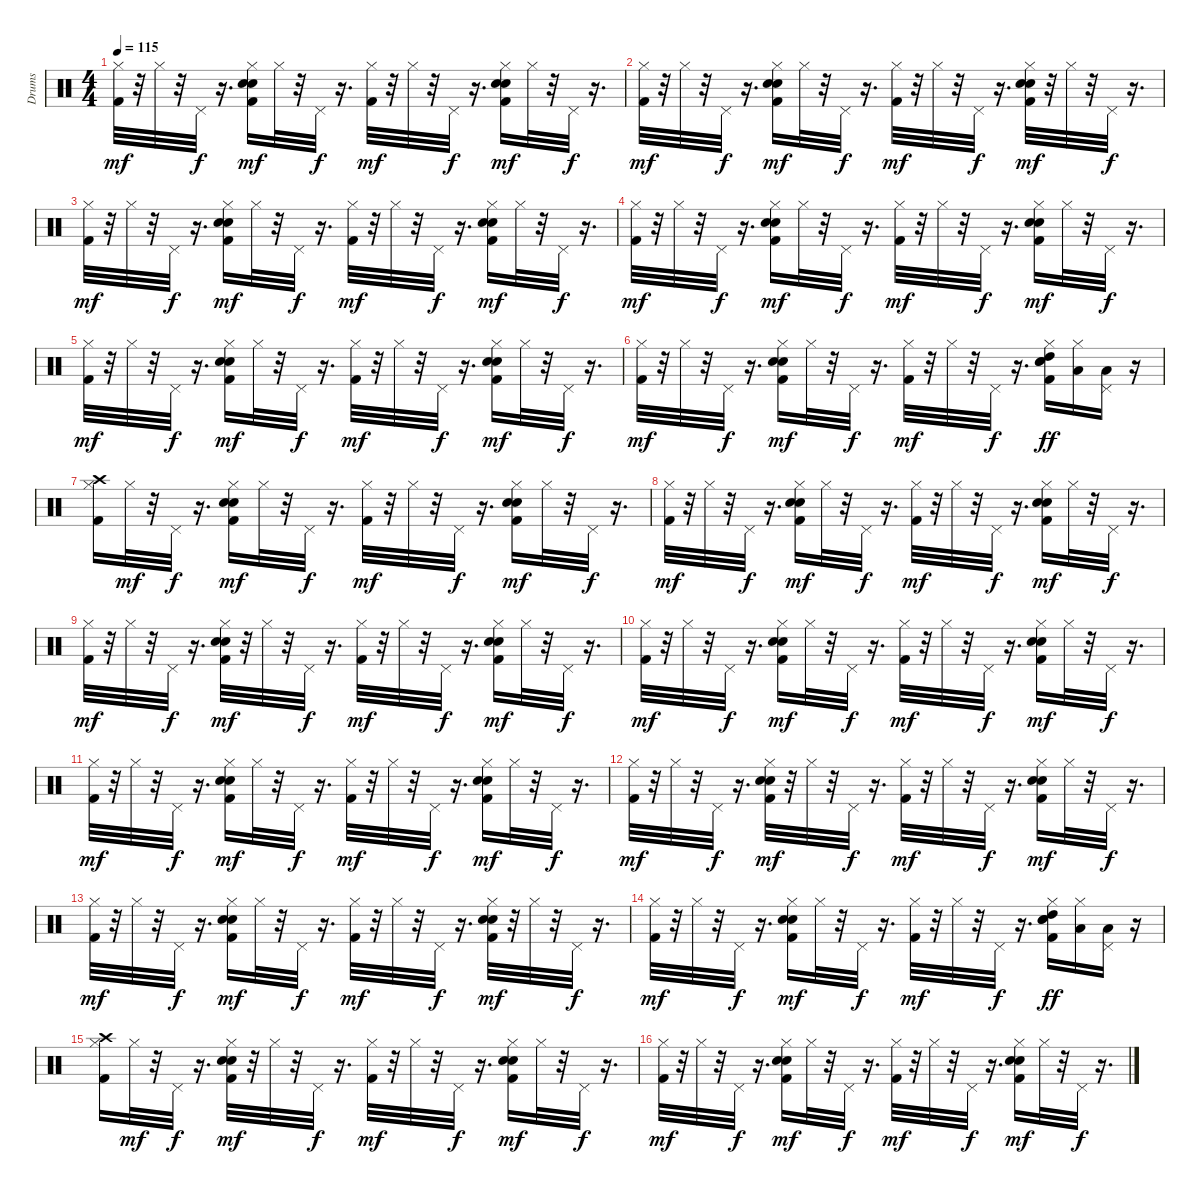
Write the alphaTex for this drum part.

\track ("Drums" "Drums") {instrument percussion}
\staff {score}
\articulation defaults
\ts (4 4)
\tempo 115
\clef neutral
\ks c
("Kick (hit) 2" "Hi-Hat (closed)").32{dy mf} r.32 "Hi-Hat (closed)".32 r.32 "Pedal Hi-Hat (hit)".32{dy f} r.16{d} ("Kick (hit) 2" "Snare (hit) 2" "Hand Clap (hit)" "Hi-Hat (closed)").16{dy mf} "Hi-Hat (closed)".32 r.32 "Pedal Hi-Hat (hit)".32{dy f} r.16{d} ("Kick (hit) 2" "Hi-Hat (closed)").32{dy mf} r.32 "Hi-Hat (closed)".32 r.32 "Pedal Hi-Hat (hit)".32{dy f} r.16{d} ("Kick (hit) 2" "Snare (hit) 2" "Hand Clap (hit)" "Hi-Hat (closed)").16{dy mf} "Hi-Hat (closed)".32 r.32 "Pedal Hi-Hat (hit)".32{dy f} r.16{d} |
("Kick (hit) 2" "Hi-Hat (closed)").32{dy mf} r.32 "Hi-Hat (closed)".32 r.32 "Pedal Hi-Hat (hit)".32{dy f} r.16{d} ("Kick (hit) 2" "Snare (hit) 2" "Hand Clap (hit)" "Hi-Hat (closed)").16{dy mf} "Hi-Hat (closed)".32 r.32 "Pedal Hi-Hat (hit)".32{dy f} r.16{d} ("Kick (hit) 2" "Hi-Hat (closed)").32{dy mf} r.32 "Hi-Hat (closed)".32 r.32 "Pedal Hi-Hat (hit)".32{dy f} r.16{d} ("Kick (hit) 2" "Snare (hit) 2" "Hand Clap (hit)" "Hi-Hat (closed)").32{dy mf} r.32 "Hi-Hat (closed)".32 r.32 "Pedal Hi-Hat (hit)".32{dy f} r.16{d} |
("Kick (hit) 2" "Hi-Hat (closed)").32{dy mf} r.32 "Hi-Hat (closed)".32 r.32 "Pedal Hi-Hat (hit)".32{dy f} r.16{d} ("Kick (hit) 2" "Snare (hit) 2" "Hand Clap (hit)" "Hi-Hat (closed)").16{dy mf} "Hi-Hat (closed)".32 r.32 "Pedal Hi-Hat (hit)".32{dy f} r.16{d} ("Kick (hit) 2" "Hi-Hat (closed)").32{dy mf} r.32 "Hi-Hat (closed)".32 r.32 "Pedal Hi-Hat (hit)".32{dy f} r.16{d} ("Kick (hit) 2" "Snare (hit) 2" "Hand Clap (hit)" "Hi-Hat (closed)").16{dy mf} "Hi-Hat (closed)".32 r.32 "Pedal Hi-Hat (hit)".32{dy f} r.16{d} |
("Kick (hit) 2" "Hi-Hat (closed)").32{dy mf} r.32 "Hi-Hat (closed)".32 r.32 "Pedal Hi-Hat (hit)".32{dy f} r.16{d} ("Kick (hit) 2" "Snare (hit) 2" "Hand Clap (hit)" "Hi-Hat (closed)").16{dy mf} "Hi-Hat (closed)".32 r.32 "Pedal Hi-Hat (hit)".32{dy f} r.16{d} ("Kick (hit) 2" "Hi-Hat (closed)").32{dy mf} r.32 "Hi-Hat (closed)".32 r.32 "Pedal Hi-Hat (hit)".32{dy f} r.16{d} ("Kick (hit) 2" "Snare (hit) 2" "Hand Clap (hit)" "Hi-Hat (closed)").16{dy mf} "Hi-Hat (closed)".32 r.32 "Pedal Hi-Hat (hit)".32{dy f} r.16{d} |
("Kick (hit) 2" "Hi-Hat (closed)").32{dy mf} r.32 "Hi-Hat (closed)".32 r.32 "Pedal Hi-Hat (hit)".32{dy f} r.16{d} ("Kick (hit) 2" "Snare (hit) 2" "Hand Clap (hit)" "Hi-Hat (closed)").16{dy mf} "Hi-Hat (closed)".32 r.32 "Pedal Hi-Hat (hit)".32{dy f} r.16{d} ("Kick (hit) 2" "Hi-Hat (closed)").32{dy mf} r.32 "Hi-Hat (closed)".32 r.32 "Pedal Hi-Hat (hit)".32{dy f} r.16{d} ("Kick (hit) 2" "Snare (hit) 2" "Hand Clap (hit)" "Hi-Hat (closed)").16{dy mf} "Hi-Hat (closed)".32 r.32 "Pedal Hi-Hat (hit)".32{dy f} r.16{d} |
("Kick (hit) 2" "Hi-Hat (closed)").32{dy mf} r.32 "Hi-Hat (closed)".32 r.32 "Pedal Hi-Hat (hit)".32{dy f} r.16{d} ("Kick (hit) 2" "Snare (hit) 2" "Hand Clap (hit)" "Hi-Hat (closed)").16{dy mf} "Hi-Hat (closed)".32 r.32 "Pedal Hi-Hat (hit)".32{dy f} r.16{d} ("Kick (hit) 2" "Hi-Hat (closed)").32{dy mf} r.32 "Hi-Hat (closed)".32 r.32 "Pedal Hi-Hat (hit)".32{dy f} r.16{d} ("Kick (hit) 2" "Snare (hit) 2" "Hand Clap (hit)" "Hi-Hat (closed)" "High Tom (hit)").16{dy ff} ("Hi-Hat (closed)" "Low Tom (hit)").16 ("Pedal Hi-Hat (hit)" "Low Floor Tom (hit)").16 r.16 |
("Kick (hit) 2" "Hi-Hat (closed)" "Crash high (hit)").16 "Hi-Hat (closed)".32{dy mf} r.32 "Pedal Hi-Hat (hit)".32{dy f} r.16{d} ("Kick (hit) 2" "Snare (hit) 2" "Hand Clap (hit)" "Hi-Hat (closed)").16{dy mf} "Hi-Hat (closed)".32 r.32 "Pedal Hi-Hat (hit)".32{dy f} r.16{d} ("Kick (hit) 2" "Hi-Hat (closed)").32{dy mf} r.32 "Hi-Hat (closed)".32 r.32 "Pedal Hi-Hat (hit)".32{dy f} r.16{d} ("Kick (hit) 2" "Snare (hit) 2" "Hand Clap (hit)" "Hi-Hat (closed)").16{dy mf} "Hi-Hat (closed)".32 r.32 "Pedal Hi-Hat (hit)".32{dy f} r.16{d} |
("Kick (hit) 2" "Hi-Hat (closed)").32{dy mf} r.32 "Hi-Hat (closed)".32 r.32 "Pedal Hi-Hat (hit)".32{dy f} r.16{d} ("Kick (hit) 2" "Snare (hit) 2" "Hand Clap (hit)" "Hi-Hat (closed)").16{dy mf} "Hi-Hat (closed)".32 r.32 "Pedal Hi-Hat (hit)".32{dy f} r.16{d} ("Kick (hit) 2" "Hi-Hat (closed)").32{dy mf} r.32 "Hi-Hat (closed)".32 r.32 "Pedal Hi-Hat (hit)".32{dy f} r.16{d} ("Kick (hit) 2" "Snare (hit) 2" "Hand Clap (hit)" "Hi-Hat (closed)").16{dy mf} "Hi-Hat (closed)".32 r.32 "Pedal Hi-Hat (hit)".32{dy f} r.16{d} |
("Kick (hit) 2" "Hi-Hat (closed)").32{dy mf} r.32 "Hi-Hat (closed)".32 r.32 "Pedal Hi-Hat (hit)".32{dy f} r.16{d} ("Kick (hit) 2" "Snare (hit) 2" "Hand Clap (hit)" "Hi-Hat (closed)").32{dy mf} r.32 "Hi-Hat (closed)".32 r.32 "Pedal Hi-Hat (hit)".32{dy f} r.16{d} ("Kick (hit) 2" "Hi-Hat (closed)").32{dy mf} r.32 "Hi-Hat (closed)".32 r.32 "Pedal Hi-Hat (hit)".32{dy f} r.16{d} ("Kick (hit) 2" "Snare (hit) 2" "Hand Clap (hit)" "Hi-Hat (closed)").16{dy mf} "Hi-Hat (closed)".32 r.32 "Pedal Hi-Hat (hit)".32{dy f} r.16{d} |
("Kick (hit) 2" "Hi-Hat (closed)").32{dy mf} r.32 "Hi-Hat (closed)".32 r.32 "Pedal Hi-Hat (hit)".32{dy f} r.16{d} ("Kick (hit) 2" "Snare (hit) 2" "Hand Clap (hit)" "Hi-Hat (closed)").16{dy mf} "Hi-Hat (closed)".32 r.32 "Pedal Hi-Hat (hit)".32{dy f} r.16{d} ("Kick (hit) 2" "Hi-Hat (closed)").32{dy mf} r.32 "Hi-Hat (closed)".32 r.32 "Pedal Hi-Hat (hit)".32{dy f} r.16{d} ("Kick (hit) 2" "Snare (hit) 2" "Hand Clap (hit)" "Hi-Hat (closed)").16{dy mf} "Hi-Hat (closed)".32 r.32 "Pedal Hi-Hat (hit)".32{dy f} r.16{d} |
("Kick (hit) 2" "Hi-Hat (closed)").32{dy mf} r.32 "Hi-Hat (closed)".32 r.32 "Pedal Hi-Hat (hit)".32{dy f} r.16{d} ("Kick (hit) 2" "Snare (hit) 2" "Hand Clap (hit)" "Hi-Hat (closed)").16{dy mf} "Hi-Hat (closed)".32 r.32 "Pedal Hi-Hat (hit)".32{dy f} r.16{d} ("Kick (hit) 2" "Hi-Hat (closed)").32{dy mf} r.32 "Hi-Hat (closed)".32 r.32 "Pedal Hi-Hat (hit)".32{dy f} r.16{d} ("Kick (hit) 2" "Snare (hit) 2" "Hand Clap (hit)" "Hi-Hat (closed)").16{dy mf} "Hi-Hat (closed)".32 r.32 "Pedal Hi-Hat (hit)".32{dy f} r.16{d} |
("Kick (hit) 2" "Hi-Hat (closed)").32{dy mf} r.32 "Hi-Hat (closed)".32 r.32 "Pedal Hi-Hat (hit)".32{dy f} r.16{d} ("Kick (hit) 2" "Snare (hit) 2" "Hand Clap (hit)" "Hi-Hat (closed)").32{dy mf} r.32 "Hi-Hat (closed)".32 r.32 "Pedal Hi-Hat (hit)".32{dy f} r.16{d} ("Kick (hit) 2" "Hi-Hat (closed)").32{dy mf} r.32 "Hi-Hat (closed)".32 r.32 "Pedal Hi-Hat (hit)".32{dy f} r.16{d} ("Kick (hit) 2" "Snare (hit) 2" "Hand Clap (hit)" "Hi-Hat (closed)").16{dy mf} "Hi-Hat (closed)".32 r.32 "Pedal Hi-Hat (hit)".32{dy f} r.16{d} |
("Kick (hit) 2" "Hi-Hat (closed)").32{dy mf} r.32 "Hi-Hat (closed)".32 r.32 "Pedal Hi-Hat (hit)".32{dy f} r.16{d} ("Kick (hit) 2" "Snare (hit) 2" "Hand Clap (hit)" "Hi-Hat (closed)").16{dy mf} "Hi-Hat (closed)".32 r.32 "Pedal Hi-Hat (hit)".32{dy f} r.16{d} ("Kick (hit) 2" "Hi-Hat (closed)").32{dy mf} r.32 "Hi-Hat (closed)".32 r.32 "Pedal Hi-Hat (hit)".32{dy f} r.16{d} ("Kick (hit) 2" "Snare (hit) 2" "Hand Clap (hit)" "Hi-Hat (closed)").32{dy mf} r.32 "Hi-Hat (closed)".32 r.32 "Pedal Hi-Hat (hit)".32{dy f} r.16{d} |
("Kick (hit) 2" "Hi-Hat (closed)").32{dy mf} r.32 "Hi-Hat (closed)".32 r.32 "Pedal Hi-Hat (hit)".32{dy f} r.16{d} ("Kick (hit) 2" "Snare (hit) 2" "Hand Clap (hit)" "Hi-Hat (closed)").16{dy mf} "Hi-Hat (closed)".32 r.32 "Pedal Hi-Hat (hit)".32{dy f} r.16{d} ("Kick (hit) 2" "Hi-Hat (closed)").32{dy mf} r.32 "Hi-Hat (closed)".32 r.32 "Pedal Hi-Hat (hit)".32{dy f} r.16{d} ("Kick (hit) 2" "Snare (hit) 2" "Hand Clap (hit)" "Hi-Hat (closed)" "High Tom (hit)").16{dy ff} ("Hi-Hat (closed)" "Low Tom (hit)").16 ("Pedal Hi-Hat (hit)" "Low Floor Tom (hit)").16 r.16 |
("Kick (hit) 2" "Hi-Hat (closed)" "Crash high (hit)").16 "Hi-Hat (closed)".32{dy mf} r.32 "Pedal Hi-Hat (hit)".32{dy f} r.16{d} ("Kick (hit) 2" "Snare (hit) 2" "Hand Clap (hit)" "Hi-Hat (closed)").32{dy mf} r.32 "Hi-Hat (closed)".32 r.32 "Pedal Hi-Hat (hit)".32{dy f} r.16{d} ("Kick (hit) 2" "Hi-Hat (closed)").32{dy mf} r.32 "Hi-Hat (closed)".32 r.32 "Pedal Hi-Hat (hit)".32{dy f} r.16{d} ("Kick (hit) 2" "Snare (hit) 2" "Hand Clap (hit)" "Hi-Hat (closed)").16{dy mf} "Hi-Hat (closed)".32 r.32 "Pedal Hi-Hat (hit)".32{dy f} r.16{d} |
("Kick (hit) 2" "Hi-Hat (closed)").32{dy mf} r.32 "Hi-Hat (closed)".32 r.32 "Pedal Hi-Hat (hit)".32{dy f} r.16{d} ("Kick (hit) 2" "Snare (hit) 2" "Hand Clap (hit)" "Hi-Hat (closed)").16{dy mf} "Hi-Hat (closed)".32 r.32 "Pedal Hi-Hat (hit)".32{dy f} r.16{d} ("Kick (hit) 2" "Hi-Hat (closed)").32{dy mf} r.32 "Hi-Hat (closed)".32 r.32 "Pedal Hi-Hat (hit)".32{dy f} r.16{d} ("Kick (hit) 2" "Snare (hit) 2" "Hand Clap (hit)" "Hi-Hat (closed)").16{dy mf} "Hi-Hat (closed)".32 r.32 "Pedal Hi-Hat (hit)".32{dy f} r.16{d}
